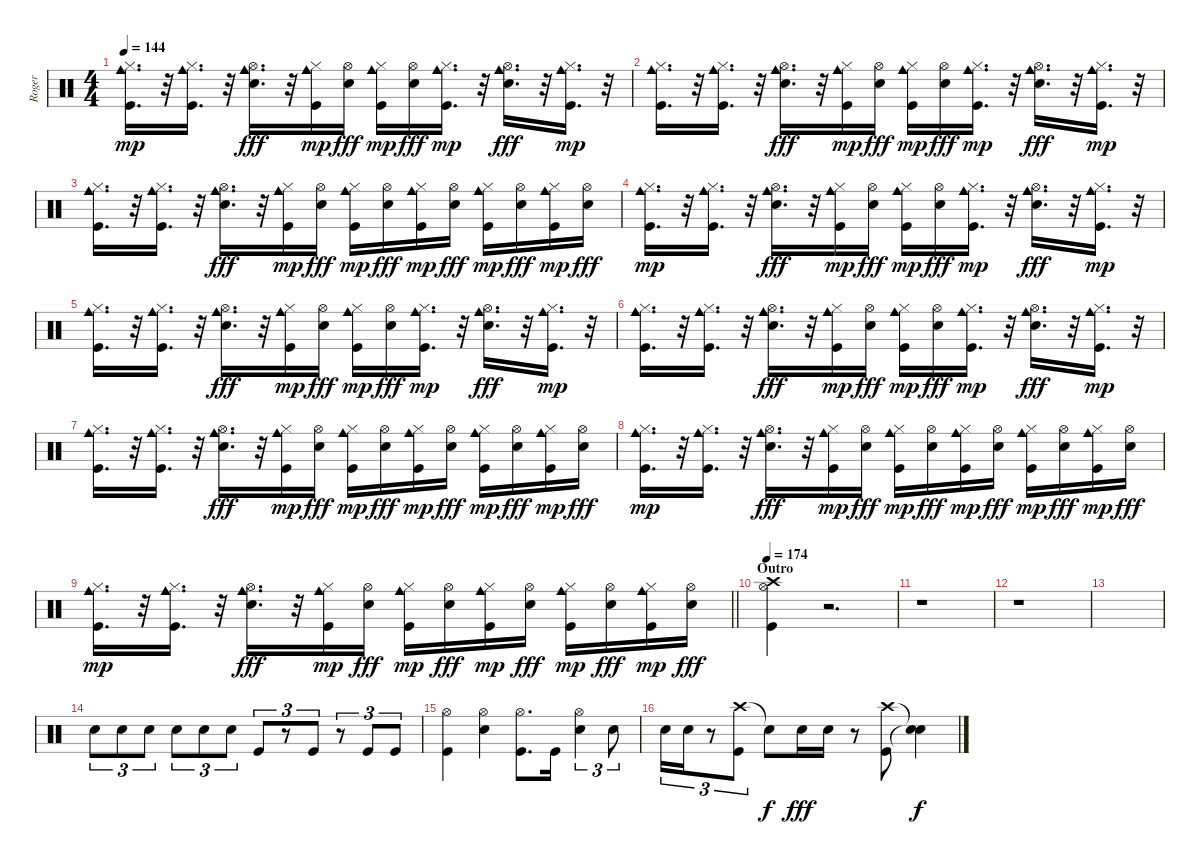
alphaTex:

\track ("Roger" "Roger") {instrument percussion}
\staff {score}
\articulation defaults
\ts (4 4)
\tempo 144
\clef neutral
\ks c
("Hi-Hat (closed)" "Cowbell medium (hit)" "Kick (hit)").16{d dy mp} r.32 ("Hi-Hat (closed)" "Cowbell medium (hit)" "Kick (hit)").16{d} r.32 ("Snare (hit) 2" "Hi-Hat (open)" "Cowbell medium (hit)").16{d dy fff} r.32 ("Hi-Hat (closed)" "Cowbell medium (hit)" "Kick (hit)").16{dy mp} ("Snare (hit) 2" "Hi-Hat (open)").16{dy fff} ("Hi-Hat (closed)" "Cowbell medium (hit)" "Kick (hit)").16{dy mp} ("Snare (hit) 2" "Hi-Hat (open)").16{dy fff} ("Hi-Hat (closed)" "Cowbell medium (hit)" "Kick (hit)").16{d dy mp} r.32 ("Snare (hit) 2" "Hi-Hat (open)" "Cowbell medium (hit)").16{d dy fff} r.32 ("Hi-Hat (closed)" "Cowbell medium (hit)" "Kick (hit)").16{d dy mp} r.32 |
("Hi-Hat (closed)" "Cowbell medium (hit)" "Kick (hit)").16{d} r.32 ("Hi-Hat (closed)" "Cowbell medium (hit)" "Kick (hit)").16{d} r.32 ("Snare (hit) 2" "Hi-Hat (open)" "Cowbell medium (hit)").16{d dy fff} r.32 ("Hi-Hat (closed)" "Cowbell medium (hit)" "Kick (hit)").16{dy mp} ("Snare (hit) 2" "Hi-Hat (open)").16{dy fff} ("Hi-Hat (closed)" "Cowbell medium (hit)" "Kick (hit)").16{dy mp} ("Snare (hit) 2" "Hi-Hat (open)").16{dy fff} ("Hi-Hat (closed)" "Cowbell medium (hit)" "Kick (hit)").16{d dy mp} r.32 ("Snare (hit) 2" "Hi-Hat (open)" "Cowbell medium (hit)").16{d dy fff} r.32 ("Hi-Hat (closed)" "Cowbell medium (hit)" "Kick (hit)").16{d dy mp} r.32 |
("Hi-Hat (closed)" "Cowbell medium (hit)" "Kick (hit)").16{d} r.32 ("Hi-Hat (closed)" "Cowbell medium (hit)" "Kick (hit)").16{d} r.32 ("Snare (hit) 2" "Hi-Hat (open)" "Cowbell medium (hit)").16{d dy fff} r.32 ("Hi-Hat (closed)" "Cowbell medium (hit)" "Kick (hit)").16{dy mp} ("Snare (hit) 2" "Hi-Hat (open)").16{dy fff} ("Hi-Hat (closed)" "Cowbell medium (hit)" "Kick (hit)").16{dy mp} ("Snare (hit) 2" "Hi-Hat (open)").16{dy fff} ("Hi-Hat (closed)" "Cowbell medium (hit)" "Kick (hit)").16{dy mp} ("Hi-Hat (open)" "Snare (hit) 2").16{dy fff} ("Hi-Hat (closed)" "Cowbell medium (hit)" "Kick (hit)").16{dy mp} ("Hi-Hat (open)" "Snare (hit) 2").16{dy fff} ("Hi-Hat (closed)" "Cowbell medium (hit)" "Kick (hit)").16{dy mp} ("Hi-Hat (open)" "Snare (hit) 2").16{dy fff} |
("Hi-Hat (closed)" "Cowbell medium (hit)" "Kick (hit)").16{d dy mp} r.32 ("Hi-Hat (closed)" "Cowbell medium (hit)" "Kick (hit)").16{d} r.32 ("Snare (hit) 2" "Hi-Hat (open)" "Cowbell medium (hit)").16{d dy fff} r.32 ("Hi-Hat (closed)" "Cowbell medium (hit)" "Kick (hit)").16{dy mp} ("Snare (hit) 2" "Hi-Hat (open)").16{dy fff} ("Hi-Hat (closed)" "Cowbell medium (hit)" "Kick (hit)").16{dy mp} ("Snare (hit) 2" "Hi-Hat (open)").16{dy fff} ("Hi-Hat (closed)" "Cowbell medium (hit)" "Kick (hit)").16{d dy mp} r.32 ("Snare (hit) 2" "Hi-Hat (open)" "Cowbell medium (hit)").16{d dy fff} r.32 ("Hi-Hat (closed)" "Cowbell medium (hit)" "Kick (hit)").16{d dy mp} r.32 |
("Hi-Hat (closed)" "Cowbell medium (hit)" "Kick (hit)").16{d} r.32 ("Hi-Hat (closed)" "Cowbell medium (hit)" "Kick (hit)").16{d} r.32 ("Snare (hit) 2" "Hi-Hat (open)" "Cowbell medium (hit)").16{d dy fff} r.32 ("Hi-Hat (closed)" "Cowbell medium (hit)" "Kick (hit)").16{dy mp} ("Snare (hit) 2" "Hi-Hat (open)").16{dy fff} ("Hi-Hat (closed)" "Cowbell medium (hit)" "Kick (hit)").16{dy mp} ("Snare (hit) 2" "Hi-Hat (open)").16{dy fff} ("Hi-Hat (closed)" "Cowbell medium (hit)" "Kick (hit)").16{d dy mp} r.32 ("Snare (hit) 2" "Hi-Hat (open)" "Cowbell medium (hit)").16{d dy fff} r.32 ("Hi-Hat (closed)" "Cowbell medium (hit)" "Kick (hit)").16{d dy mp} r.32 |
("Hi-Hat (closed)" "Cowbell medium (hit)" "Kick (hit)").16{d} r.32 ("Hi-Hat (closed)" "Cowbell medium (hit)" "Kick (hit)").16{d} r.32 ("Snare (hit) 2" "Hi-Hat (open)" "Cowbell medium (hit)").16{d dy fff} r.32 ("Hi-Hat (closed)" "Cowbell medium (hit)" "Kick (hit)").16{dy mp} ("Snare (hit) 2" "Hi-Hat (open)").16{dy fff} ("Hi-Hat (closed)" "Cowbell medium (hit)" "Kick (hit)").16{dy mp} ("Snare (hit) 2" "Hi-Hat (open)").16{dy fff} ("Hi-Hat (closed)" "Cowbell medium (hit)" "Kick (hit)").16{d dy mp} r.32 ("Snare (hit) 2" "Hi-Hat (open)" "Cowbell medium (hit)").16{d dy fff} r.32 ("Hi-Hat (closed)" "Cowbell medium (hit)" "Kick (hit)").16{d dy mp} r.32 |
("Hi-Hat (closed)" "Cowbell medium (hit)" "Kick (hit)").16{d} r.32 ("Hi-Hat (closed)" "Cowbell medium (hit)" "Kick (hit)").16{d} r.32 ("Snare (hit) 2" "Hi-Hat (open)" "Cowbell medium (hit)").16{d dy fff} r.32 ("Hi-Hat (closed)" "Cowbell medium (hit)" "Kick (hit)").16{dy mp} ("Snare (hit) 2" "Hi-Hat (open)").16{dy fff} ("Hi-Hat (closed)" "Cowbell medium (hit)" "Kick (hit)").16{dy mp} ("Snare (hit) 2" "Hi-Hat (open)").16{dy fff} ("Hi-Hat (closed)" "Cowbell medium (hit)" "Kick (hit)").16{dy mp} ("Hi-Hat (open)" "Snare (hit) 2").16{dy fff} ("Hi-Hat (closed)" "Cowbell medium (hit)" "Kick (hit)").16{dy mp} ("Hi-Hat (open)" "Snare (hit) 2").16{dy fff} ("Hi-Hat (closed)" "Cowbell medium (hit)" "Kick (hit)").16{dy mp} ("Hi-Hat (open)" "Snare (hit) 2").16{dy fff} |
("Hi-Hat (closed)" "Cowbell medium (hit)" "Kick (hit)").16{d dy mp} r.32 ("Hi-Hat (closed)" "Cowbell medium (hit)" "Kick (hit)").16{d} r.32 ("Snare (hit) 2" "Hi-Hat (open)" "Cowbell medium (hit)").16{d dy fff} r.32 ("Hi-Hat (closed)" "Cowbell medium (hit)" "Kick (hit)").16{dy mp} ("Snare (hit) 2" "Hi-Hat (open)").16{dy fff} ("Hi-Hat (closed)" "Cowbell medium (hit)" "Kick (hit)").16{dy mp} ("Snare (hit) 2" "Hi-Hat (open)").16{dy fff} ("Hi-Hat (closed)" "Cowbell medium (hit)" "Kick (hit)").16{dy mp} ("Hi-Hat (open)" "Snare (hit) 2").16{dy fff} ("Hi-Hat (closed)" "Cowbell medium (hit)" "Kick (hit)").16{dy mp} ("Hi-Hat (open)" "Snare (hit) 2").16{dy fff} ("Hi-Hat (closed)" "Cowbell medium (hit)" "Kick (hit)").16{dy mp} ("Hi-Hat (open)" "Snare (hit) 2").16{dy fff} |
\barLineRight lightlight
("Hi-Hat (closed)" "Cowbell medium (hit)" "Kick (hit)").16{d dy mp} r.32 ("Hi-Hat (closed)" "Cowbell medium (hit)" "Kick (hit)").16{d} r.32 ("Snare (hit) 2" "Hi-Hat (open)" "Cowbell medium (hit)").16{d dy fff} r.32 ("Hi-Hat (closed)" "Cowbell medium (hit)" "Kick (hit)").16{dy mp} ("Snare (hit) 2" "Hi-Hat (open)").16{dy fff} ("Hi-Hat (closed)" "Cowbell medium (hit)" "Kick (hit)").16{dy mp} ("Snare (hit) 2" "Hi-Hat (open)").16{dy fff} ("Hi-Hat (closed)" "Cowbell medium (hit)" "Kick (hit)").16{dy mp} ("Hi-Hat (open)" "Snare (hit) 2").16{dy fff} ("Hi-Hat (closed)" "Cowbell medium (hit)" "Kick (hit)").16{dy mp} ("Hi-Hat (open)" "Snare (hit) 2").16{dy fff} ("Hi-Hat (closed)" "Cowbell medium (hit)" "Kick (hit)").16{dy mp} ("Hi-Hat (open)" "Snare (hit) 2").16{dy fff} |
\section ("" "Outro")
\tempo 174
("Crash high (hit)" "Hi-Hat (open)" "Kick (hit)").4 r.2{d} |
r.1 |
r.1 |
|
"Snare (hit) 2".8{tu (3 2)} "Snare (hit) 2".8{tu (3 2)} "Snare (hit) 2".8{tu (3 2)} "Snare (hit) 2".8{tu (3 2)} "Snare (hit) 2".8{tu (3 2)} "Snare (hit) 2".8{tu (3 2)} "Kick (hit)".8{tu (3 2)} r.8{tu (3 2)} "Kick (hit)".8{tu (3 2)} r.8{tu (3 2)} "Kick (hit)".8{tu (3 2)} "Kick (hit)".8{tu (3 2)} |
("Hi-Hat (open)" "Kick (hit)").4 ("Hi-Hat (open)" "Snare (hit) 2").4 ("Hi-Hat (open)" "Kick (hit)").8{d} "Kick (hit)".16 ("Hi-Hat (open)" "Snare (hit) 2").4{tu (3 2)} "Snare (hit) 2".8{tu (3 2)} |
"Snare (hit) 2".16{tu (3 2)} "Snare (hit) 2".16{tu (3 2)} r.8{tu (3 2)} ("Crash high (hit)" "Kick (hit)").8{tu (3 2)} "Snare (hit)"{t}.8{dy f} "Snare (hit) 2".16{dy fff} "Snare (hit) 2".16 r.8 ("Crash high (hit)" "Kick (hit)").8 ("Snare (hit)"{t} "Snare (hit)"{t}).4{dy f}
